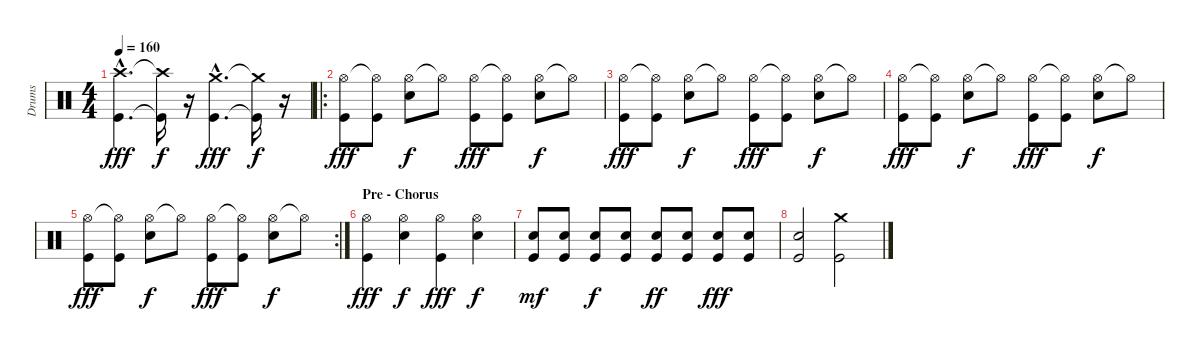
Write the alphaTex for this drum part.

\track ("Drums" "Drums") {instrument percussion}
\staff {score}
\articulation defaults
\ts (4 4)
\tempo 160
\clef neutral
\ks c
("Crash high (hit)"{hac} "Kick (hit)"{hac}).4{d dy fff} ("Crash high (hit)"{t} "Kick (hit)"{t}).16{dy f} r.16 ("Crash medium (hit)"{hac} "Kick (hit)"{hac}).4{d dy fff} ("Crash medium (hit)"{t} "Kick (hit)"{t}).16{dy f} r.16 |
\ro
("Hi-Hat (open)" "Kick (hit)").8{dy fff} ("Hi-Hat (open)"{t} "Kick (hit)").8 ("Hi-Hat (open)" "Snare (hit) 2").8{dy f} "Hi-Hat (open)"{t}.8 ("Hi-Hat (open)" "Kick (hit)").8{dy fff} ("Hi-Hat (open)"{t} "Kick (hit)").8 ("Hi-Hat (open)" "Snare (hit) 2").8{dy f} "Hi-Hat (open)"{t}.8 |
("Hi-Hat (open)" "Kick (hit)").8{dy fff} ("Hi-Hat (open)"{t} "Kick (hit)").8 ("Hi-Hat (open)" "Snare (hit) 2").8{dy f} "Hi-Hat (open)"{t}.8 ("Hi-Hat (open)" "Kick (hit)").8{dy fff} ("Hi-Hat (open)"{t} "Kick (hit)").8 ("Hi-Hat (open)" "Snare (hit) 2").8{dy f} "Hi-Hat (open)"{t}.8 |
("Hi-Hat (open)" "Kick (hit)").8{dy fff} ("Hi-Hat (open)"{t} "Kick (hit)").8 ("Hi-Hat (open)" "Snare (hit) 2").8{dy f} "Hi-Hat (open)"{t}.8 ("Hi-Hat (open)" "Kick (hit)").8{dy fff} ("Hi-Hat (open)"{t} "Kick (hit)").8 ("Hi-Hat (open)" "Snare (hit) 2").8{dy f} "Hi-Hat (open)"{t}.8 |
\rc 2
("Hi-Hat (open)" "Kick (hit)").8{dy fff} ("Hi-Hat (open)"{t} "Kick (hit)").8 ("Hi-Hat (open)" "Snare (hit) 2").8{dy f} "Hi-Hat (open)"{t}.8 ("Hi-Hat (open)" "Kick (hit)").8{dy fff} ("Hi-Hat (open)"{t} "Kick (hit)").8 ("Hi-Hat (open)" "Snare (hit) 2").8{dy f} "Hi-Hat (open)"{t}.8 |
\section ("" "Pre - Chorus")
("Hi-Hat (open)" "Kick (hit)").4{dy fff} ("Hi-Hat (open)" "Snare (hit) 2").4{dy f} ("Hi-Hat (open)" "Kick (hit)").4{dy fff} ("Hi-Hat (open)" "Snare (hit) 2").4{dy f} |
("Snare (hit) 2" "Kick (hit)").8{dy mf} ("Snare (hit) 2" "Kick (hit)").8 ("Snare (hit) 2" "Kick (hit)").8{dy f} ("Snare (hit) 2" "Kick (hit)").8 ("Snare (hit) 2" "Kick (hit)").8{dy ff} ("Snare (hit) 2" "Kick (hit)").8 ("Snare (hit) 2" "Kick (hit)").8{dy fff} ("Snare (hit) 2" "Kick (hit)").8 |
("Snare (hit) 2" "Kick (hit)").2 ("Crash medium (hit)" "Kick (hit)").2
